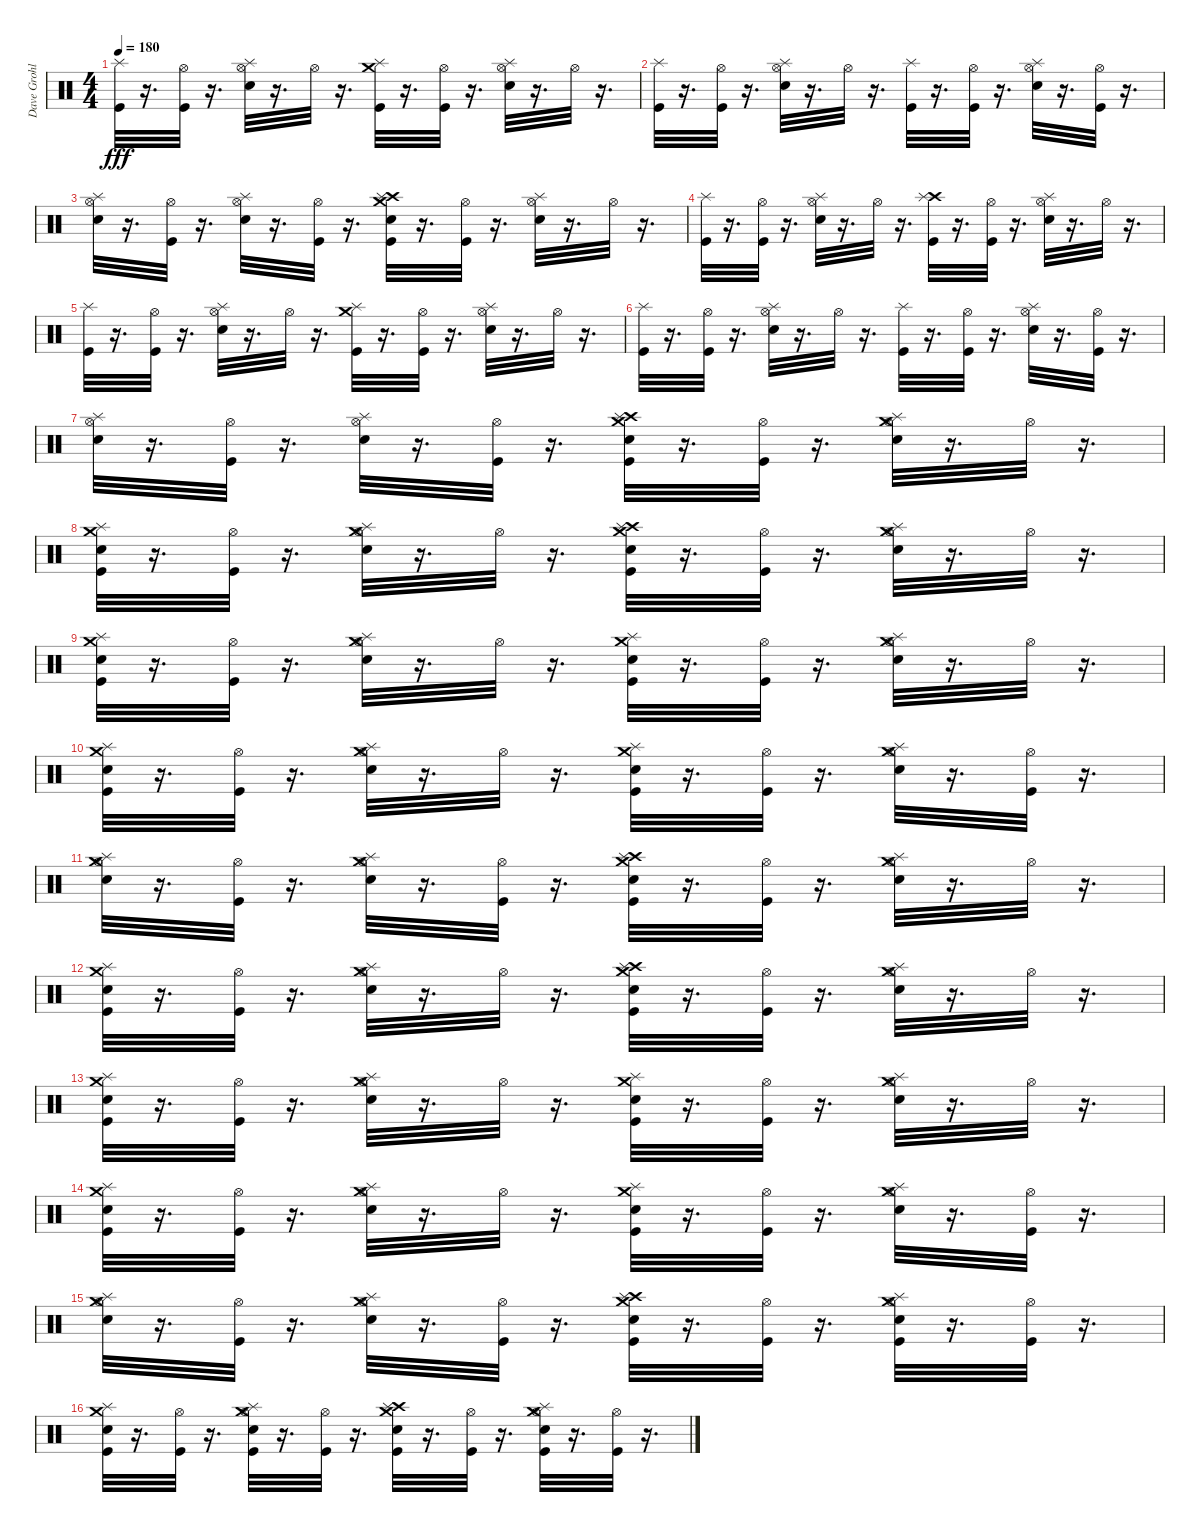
\track ("Dave Grohl - Drums" "Dave Grohl") {instrument percussion}
\staff {score}
\articulation defaults
\ts (4 4)
\tempo 180
\clef neutral
\ks c
("Splash (hit)" "Kick (hit)").32{dy fff} r.16{d} ("Hi-Hat (open)" "Kick (hit)").32 r.16{d} ("Splash (hit)" "Hi-Hat (open)" "Snare (hit) 2").32 r.16{d} "Hi-Hat (open)".32 r.16{d} ("Crash medium (hit)" "Splash (hit)" "Kick (hit)").32 r.16{d} ("Hi-Hat (open)" "Kick (hit)").32 r.16{d} ("Splash (hit)" "Hi-Hat (open)" "Snare (hit) 2").32 r.16{d} "Hi-Hat (open)".32 r.16{d} |
("Splash (hit)" "Kick (hit)").32 r.16{d} ("Hi-Hat (open)" "Kick (hit)").32 r.16{d} ("Splash (hit)" "Hi-Hat (open)" "Snare (hit) 2").32 r.16{d} "Hi-Hat (open)".32 r.16{d} ("Splash (hit)" "Kick (hit)").32 r.16{d} ("Hi-Hat (open)" "Kick (hit)").32 r.16{d} ("Splash (hit)" "Hi-Hat (open)" "Snare (hit) 2").32 r.16{d} ("Hi-Hat (open)" "Kick (hit)").32 r.16{d} |
("Splash (hit)" "Hi-Hat (open)" "Snare (hit) 2").32 r.16{d} ("Hi-Hat (open)" "Kick (hit)").32 r.16{d} ("Splash (hit)" "Hi-Hat (open)" "Snare (hit) 2").32 r.16{d} ("Hi-Hat (open)" "Kick (hit)").32 r.16{d} ("Crash high (hit)" "Crash medium (hit)" "Splash (hit)" "Snare (hit) 2" "Kick (hit)").32 r.16{d} ("Hi-Hat (open)" "Kick (hit)").32 r.16{d} ("Splash (hit)" "Hi-Hat (open)" "Snare (hit) 2").32 r.16{d} "Hi-Hat (open)".32 r.16{d} |
("Splash (hit)" "Kick (hit)").32 r.16{d} ("Hi-Hat (open)" "Kick (hit)").32 r.16{d} ("Splash (hit)" "Hi-Hat (open)" "Snare (hit) 2").32 r.16{d} "Hi-Hat (open)".32 r.16{d} ("Crash high (hit)" "Splash (hit)" "Kick (hit)").32 r.16{d} ("Hi-Hat (open)" "Kick (hit)").32 r.16{d} ("Splash (hit)" "Hi-Hat (open)" "Snare (hit) 2").32 r.16{d} "Hi-Hat (open)".32 r.16{d} |
("Splash (hit)" "Kick (hit)").32 r.16{d} ("Hi-Hat (open)" "Kick (hit)").32 r.16{d} ("Splash (hit)" "Hi-Hat (open)" "Snare (hit) 2").32 r.16{d} "Hi-Hat (open)".32 r.16{d} ("Crash medium (hit)" "Splash (hit)" "Kick (hit)").32 r.16{d} ("Hi-Hat (open)" "Kick (hit)").32 r.16{d} ("Splash (hit)" "Hi-Hat (open)" "Snare (hit) 2").32 r.16{d} "Hi-Hat (open)".32 r.16{d} |
("Splash (hit)" "Kick (hit)").32 r.16{d} ("Hi-Hat (open)" "Kick (hit)").32 r.16{d} ("Splash (hit)" "Hi-Hat (open)" "Snare (hit) 2").32 r.16{d} "Hi-Hat (open)".32 r.16{d} ("Splash (hit)" "Kick (hit)").32 r.16{d} ("Hi-Hat (open)" "Kick (hit)").32 r.16{d} ("Splash (hit)" "Hi-Hat (open)" "Snare (hit) 2").32 r.16{d} ("Hi-Hat (open)" "Kick (hit)").32 r.16{d} |
("Splash (hit)" "Hi-Hat (open)" "Snare (hit) 2").32 r.16{d} ("Hi-Hat (open)" "Kick (hit)").32 r.16{d} ("Splash (hit)" "Hi-Hat (open)" "Snare (hit) 2").32 r.16{d} ("Hi-Hat (open)" "Kick (hit)").32 r.16{d} ("Crash high (hit)" "Crash medium (hit)" "Splash (hit)" "Snare (hit) 2" "Kick (hit)").32 r.16{d} ("Hi-Hat (open)" "Kick (hit)").32 r.16{d} ("Crash medium (hit)" "Splash (hit)" "Hi-Hat (open)" "Snare (hit) 2").32 r.16{d} "Hi-Hat (open)".32 r.16{d} |
("Snare (hit) 2" "Crash medium (hit)" "Splash (hit)" "Kick (hit)").32 r.16{d} ("Hi-Hat (open)" "Kick (hit)").32 r.16{d} ("Crash medium (hit)" "Splash (hit)" "Hi-Hat (open)" "Snare (hit) 2").32 r.16{d} "Hi-Hat (open)".32 r.16{d} ("Snare (hit) 2" "Crash medium (hit)" "Crash high (hit)" "Splash (hit)" "Kick (hit)").32 r.16{d} ("Hi-Hat (open)" "Kick (hit)").32 r.16{d} ("Crash medium (hit)" "Splash (hit)" "Hi-Hat (open)" "Snare (hit) 2").32 r.16{d} "Hi-Hat (open)".32 r.16{d} |
("Snare (hit) 2" "Crash medium (hit)" "Splash (hit)" "Kick (hit)").32 r.16{d} ("Hi-Hat (open)" "Kick (hit)").32 r.16{d} ("Crash medium (hit)" "Splash (hit)" "Hi-Hat (open)" "Snare (hit) 2").32 r.16{d} "Hi-Hat (open)".32 r.16{d} ("Snare (hit) 2" "Crash medium (hit)" "Splash (hit)" "Kick (hit)").32 r.16{d} ("Hi-Hat (open)" "Kick (hit)").32 r.16{d} ("Crash medium (hit)" "Splash (hit)" "Hi-Hat (open)" "Snare (hit) 2").32 r.16{d} "Hi-Hat (open)".32 r.16{d} |
("Snare (hit) 2" "Crash medium (hit)" "Splash (hit)" "Kick (hit)").32 r.16{d} ("Hi-Hat (open)" "Kick (hit)").32 r.16{d} ("Crash medium (hit)" "Splash (hit)" "Hi-Hat (open)" "Snare (hit) 2").32 r.16{d} "Hi-Hat (open)".32 r.16{d} ("Snare (hit) 2" "Crash medium (hit)" "Splash (hit)" "Kick (hit)").32 r.16{d} ("Hi-Hat (open)" "Kick (hit)").32 r.16{d} ("Crash medium (hit)" "Splash (hit)" "Hi-Hat (open)" "Snare (hit) 2").32 r.16{d} ("Hi-Hat (open)" "Kick (hit)").32 r.16{d} |
("Crash medium (hit)" "Splash (hit)" "Hi-Hat (open)" "Snare (hit) 2").32 r.16{d} ("Hi-Hat (open)" "Kick (hit)").32 r.16{d} ("Crash medium (hit)" "Splash (hit)" "Hi-Hat (open)" "Snare (hit) 2").32 r.16{d} ("Hi-Hat (open)" "Kick (hit)").32 r.16{d} ("Crash high (hit)" "Crash medium (hit)" "Splash (hit)" "Snare (hit) 2" "Kick (hit)").32 r.16{d} ("Hi-Hat (open)" "Kick (hit)").32 r.16{d} ("Crash medium (hit)" "Splash (hit)" "Hi-Hat (open)" "Snare (hit) 2").32 r.16{d} "Hi-Hat (open)".32 r.16{d} |
("Snare (hit) 2" "Crash medium (hit)" "Splash (hit)" "Kick (hit)").32 r.16{d} ("Hi-Hat (open)" "Kick (hit)").32 r.16{d} ("Crash medium (hit)" "Splash (hit)" "Hi-Hat (open)" "Snare (hit) 2").32 r.16{d} "Hi-Hat (open)".32 r.16{d} ("Snare (hit) 2" "Crash medium (hit)" "Crash high (hit)" "Splash (hit)" "Kick (hit)").32 r.16{d} ("Hi-Hat (open)" "Kick (hit)").32 r.16{d} ("Crash medium (hit)" "Splash (hit)" "Hi-Hat (open)" "Snare (hit) 2").32 r.16{d} "Hi-Hat (open)".32 r.16{d} |
("Snare (hit) 2" "Crash medium (hit)" "Splash (hit)" "Kick (hit)").32 r.16{d} ("Hi-Hat (open)" "Kick (hit)").32 r.16{d} ("Crash medium (hit)" "Splash (hit)" "Hi-Hat (open)" "Snare (hit) 2").32 r.16{d} "Hi-Hat (open)".32 r.16{d} ("Snare (hit) 2" "Crash medium (hit)" "Splash (hit)" "Kick (hit)").32 r.16{d} ("Hi-Hat (open)" "Kick (hit)").32 r.16{d} ("Crash medium (hit)" "Splash (hit)" "Hi-Hat (open)" "Snare (hit) 2").32 r.16{d} "Hi-Hat (open)".32 r.16{d} |
("Snare (hit) 2" "Crash medium (hit)" "Splash (hit)" "Kick (hit)").32 r.16{d} ("Hi-Hat (open)" "Kick (hit)").32 r.16{d} ("Crash medium (hit)" "Splash (hit)" "Hi-Hat (open)" "Snare (hit) 2").32 r.16{d} "Hi-Hat (open)".32 r.16{d} ("Snare (hit) 2" "Crash medium (hit)" "Splash (hit)" "Kick (hit)").32 r.16{d} ("Hi-Hat (open)" "Kick (hit)").32 r.16{d} ("Crash medium (hit)" "Splash (hit)" "Hi-Hat (open)" "Snare (hit) 2").32 r.16{d} ("Hi-Hat (open)" "Kick (hit)").32 r.16{d} |
("Crash medium (hit)" "Splash (hit)" "Hi-Hat (open)" "Snare (hit) 2").32 r.16{d} ("Hi-Hat (open)" "Kick (hit)").32 r.16{d} ("Crash medium (hit)" "Splash (hit)" "Hi-Hat (open)" "Snare (hit) 2").32 r.16{d} ("Hi-Hat (open)" "Kick (hit)").32 r.16{d} ("Crash high (hit)" "Crash medium (hit)" "Splash (hit)" "Snare (hit) 2" "Kick (hit)").32 r.16{d} ("Hi-Hat (open)" "Kick (hit)").32 r.16{d} ("Kick (hit)" "Crash medium (hit)" "Splash (hit)" "Hi-Hat (open)" "Snare (hit) 2").32 r.16{d} ("Kick (hit)" "Hi-Hat (open)").32 r.16{d} |
("Snare (hit) 2" "Crash medium (hit)" "Splash (hit)" "Kick (hit)").32 r.16{d} ("Hi-Hat (open)" "Kick (hit)").32 r.16{d} ("Kick (hit)" "Crash medium (hit)" "Splash (hit)" "Hi-Hat (open)" "Snare (hit) 2").32 r.16{d} ("Kick (hit)" "Hi-Hat (open)").32 r.16{d} ("Snare (hit) 2" "Crash medium (hit)" "Crash high (hit)" "Splash (hit)" "Kick (hit)").32 r.16{d} ("Hi-Hat (open)" "Kick (hit)").32 r.16{d} ("Kick (hit)" "Crash medium (hit)" "Splash (hit)" "Hi-Hat (open)" "Snare (hit) 2").32 r.16{d} ("Kick (hit)" "Hi-Hat (open)").32 r.16{d}
